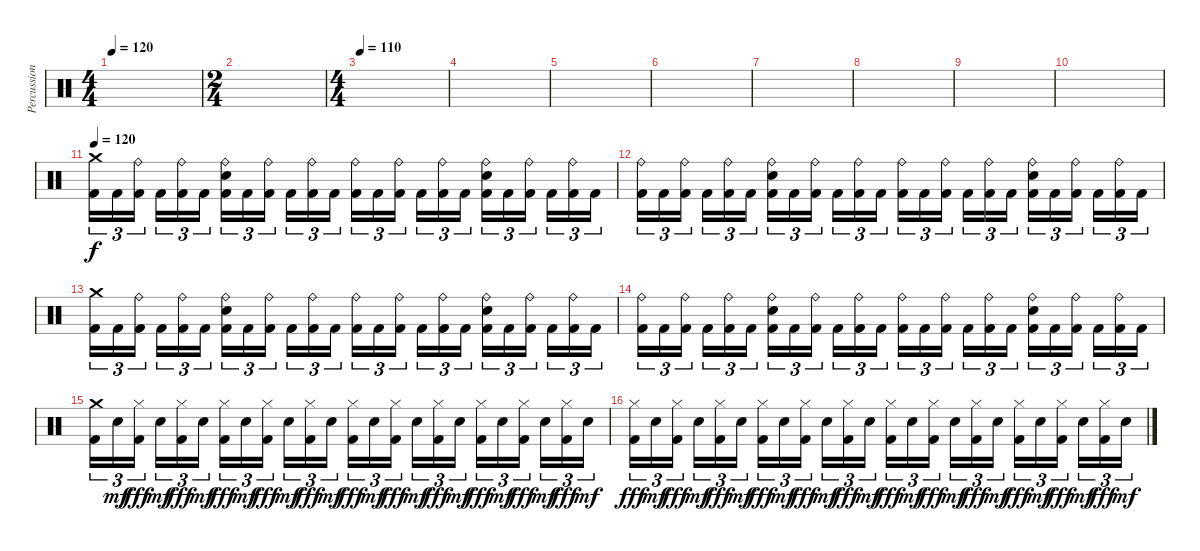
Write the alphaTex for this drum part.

\track ("Percussions" "Percussion") {instrument percussion}
\staff {score}
\articulation defaults
\ts (4 4)
\tempo 120
\clef neutral
\ks c
|
\ts (2 4)
|
\ts (4 4)
\tempo 110
|
|
|
|
|
|
|
|
\tempo 120
("Crash medium (hit)" "Kick (hit) 2").16{tu (3 2)} "Kick (hit) 2".16{tu (3 2)} ("Ride (bell)" "Kick (hit) 2").16{tu (3 2) beam splitsecondary} "Kick (hit) 2".16{tu (3 2)} ("Ride (bell)" "Kick (hit) 2").16{tu (3 2)} "Kick (hit) 2".16{tu (3 2)} ("Ride (bell)" "Snare (hit) 2" "Kick (hit) 2").16{tu (3 2)} "Kick (hit) 2".16{tu (3 2)} ("Ride (bell)" "Kick (hit) 2").16{tu (3 2) beam splitsecondary} "Kick (hit) 2".16{tu (3 2)} ("Ride (bell)" "Kick (hit) 2").16{tu (3 2)} "Kick (hit) 2".16{tu (3 2)} ("Ride (bell)" "Kick (hit) 2").16{tu (3 2)} "Kick (hit) 2".16{tu (3 2)} ("Ride (bell)" "Kick (hit) 2").16{tu (3 2) beam splitsecondary} "Kick (hit) 2".16{tu (3 2)} ("Ride (bell)" "Kick (hit) 2").16{tu (3 2)} "Kick (hit) 2".16{tu (3 2)} ("Ride (bell)" "Snare (hit) 2" "Kick (hit) 2").16{tu (3 2)} "Kick (hit) 2".16{tu (3 2)} ("Ride (bell)" "Kick (hit) 2").16{tu (3 2) beam splitsecondary} "Kick (hit) 2".16{tu (3 2)} ("Ride (bell)" "Kick (hit) 2").16{tu (3 2)} "Kick (hit) 2".16{tu (3 2)} |
("Ride (bell)" "Kick (hit) 2").16{tu (3 2)} "Kick (hit) 2".16{tu (3 2)} ("Ride (bell)" "Kick (hit) 2").16{tu (3 2) beam splitsecondary} "Kick (hit) 2".16{tu (3 2)} ("Ride (bell)" "Kick (hit) 2").16{tu (3 2)} "Kick (hit) 2".16{tu (3 2)} ("Ride (bell)" "Snare (hit) 2" "Kick (hit) 2").16{tu (3 2)} "Kick (hit) 2".16{tu (3 2)} ("Ride (bell)" "Kick (hit) 2").16{tu (3 2) beam splitsecondary} "Kick (hit) 2".16{tu (3 2)} ("Ride (bell)" "Kick (hit) 2").16{tu (3 2)} "Kick (hit) 2".16{tu (3 2)} ("Ride (bell)" "Kick (hit) 2").16{tu (3 2)} "Kick (hit) 2".16{tu (3 2)} ("Ride (bell)" "Kick (hit) 2").16{tu (3 2) beam splitsecondary} "Kick (hit) 2".16{tu (3 2)} ("Ride (bell)" "Kick (hit) 2").16{tu (3 2)} "Kick (hit) 2".16{tu (3 2)} ("Ride (bell)" "Snare (hit) 2" "Kick (hit) 2").16{tu (3 2)} "Kick (hit) 2".16{tu (3 2)} ("Ride (bell)" "Kick (hit) 2").16{tu (3 2) beam splitsecondary} "Kick (hit) 2".16{tu (3 2)} ("Ride (bell)" "Kick (hit) 2").16{tu (3 2)} "Kick (hit) 2".16{tu (3 2)} |
("Crash medium (hit)" "Kick (hit) 2").16{tu (3 2)} "Kick (hit) 2".16{tu (3 2)} ("Ride (bell)" "Kick (hit) 2").16{tu (3 2) beam splitsecondary} "Kick (hit) 2".16{tu (3 2)} ("Ride (bell)" "Kick (hit) 2").16{tu (3 2)} "Kick (hit) 2".16{tu (3 2)} ("Ride (bell)" "Snare (hit) 2" "Kick (hit) 2").16{tu (3 2)} "Kick (hit) 2".16{tu (3 2)} ("Ride (bell)" "Kick (hit) 2").16{tu (3 2) beam splitsecondary} "Kick (hit) 2".16{tu (3 2)} ("Ride (bell)" "Kick (hit) 2").16{tu (3 2)} "Kick (hit) 2".16{tu (3 2)} ("Ride (bell)" "Kick (hit) 2").16{tu (3 2)} "Kick (hit) 2".16{tu (3 2)} ("Ride (bell)" "Kick (hit) 2").16{tu (3 2) beam splitsecondary} "Kick (hit) 2".16{tu (3 2)} ("Ride (bell)" "Kick (hit) 2").16{tu (3 2)} "Kick (hit) 2".16{tu (3 2)} ("Ride (bell)" "Snare (hit) 2" "Kick (hit) 2").16{tu (3 2)} "Kick (hit) 2".16{tu (3 2)} ("Ride (bell)" "Kick (hit) 2").16{tu (3 2) beam splitsecondary} "Kick (hit) 2".16{tu (3 2)} ("Ride (bell)" "Kick (hit) 2").16{tu (3 2)} "Kick (hit) 2".16{tu (3 2)} |
("Ride (bell)" "Kick (hit) 2").16{tu (3 2)} "Kick (hit) 2".16{tu (3 2)} ("Ride (bell)" "Kick (hit) 2").16{tu (3 2) beam splitsecondary} "Kick (hit) 2".16{tu (3 2)} ("Ride (bell)" "Kick (hit) 2").16{tu (3 2)} "Kick (hit) 2".16{tu (3 2)} ("Ride (bell)" "Snare (hit) 2" "Kick (hit) 2").16{tu (3 2)} "Kick (hit) 2".16{tu (3 2)} ("Ride (bell)" "Kick (hit) 2").16{tu (3 2) beam splitsecondary} "Kick (hit) 2".16{tu (3 2)} ("Ride (bell)" "Kick (hit) 2").16{tu (3 2)} "Kick (hit) 2".16{tu (3 2)} ("Ride (bell)" "Kick (hit) 2").16{tu (3 2)} "Kick (hit) 2".16{tu (3 2)} ("Ride (bell)" "Kick (hit) 2").16{tu (3 2) beam splitsecondary} "Kick (hit) 2".16{tu (3 2)} ("Ride (bell)" "Kick (hit) 2").16{tu (3 2)} "Kick (hit) 2".16{tu (3 2)} ("Ride (bell)" "Snare (hit) 2" "Kick (hit) 2").16{tu (3 2)} "Kick (hit) 2".16{tu (3 2)} ("Ride (bell)" "Kick (hit) 2").16{tu (3 2) beam splitsecondary} "Kick (hit) 2".16{tu (3 2)} ("Ride (bell)" "Kick (hit) 2").16{tu (3 2)} "Kick (hit) 2".16{tu (3 2)} |
("Crash medium (hit)" "Kick (hit) 2").16{tu (3 2)} "Electric Snare (hit)".16{tu (3 2) dy mf} ("Hi-Hat (closed)" "Kick (hit) 2").16{tu (3 2) dy fff beam splitsecondary} "Electric Snare (hit)".16{tu (3 2) dy mf} ("Hi-Hat (closed)" "Kick (hit) 2").16{tu (3 2) dy fff} "Electric Snare (hit)".16{tu (3 2) dy mf} ("Hi-Hat (closed)" "Kick (hit) 2").16{tu (3 2) dy fff} "Electric Snare (hit)".16{tu (3 2) dy mf} ("Hi-Hat (closed)" "Kick (hit) 2").16{tu (3 2) dy fff beam splitsecondary} "Electric Snare (hit)".16{tu (3 2) dy mf} ("Hi-Hat (closed)" "Kick (hit) 2").16{tu (3 2) dy fff} "Electric Snare (hit)".16{tu (3 2) dy mf} ("Hi-Hat (closed)" "Kick (hit) 2").16{tu (3 2) dy fff} "Electric Snare (hit)".16{tu (3 2) dy mf} ("Hi-Hat (closed)" "Kick (hit) 2").16{tu (3 2) dy fff beam splitsecondary} "Electric Snare (hit)".16{tu (3 2) dy mf} ("Hi-Hat (closed)" "Kick (hit) 2").16{tu (3 2) dy fff} "Electric Snare (hit)".16{tu (3 2) dy mf} ("Hi-Hat (closed)" "Kick (hit) 2").16{tu (3 2) dy fff} "Electric Snare (hit)".16{tu (3 2) dy mf} ("Hi-Hat (closed)" "Kick (hit) 2").16{tu (3 2) dy fff beam splitsecondary} "Electric Snare (hit)".16{tu (3 2) dy mf} ("Hi-Hat (closed)" "Kick (hit) 2").16{tu (3 2) dy fff} "Electric Snare (hit)".16{tu (3 2) dy mf} |
("Hi-Hat (closed)" "Kick (hit) 2").16{tu (3 2) dy fff} "Electric Snare (hit)".16{tu (3 2) dy mf} ("Hi-Hat (closed)" "Kick (hit) 2").16{tu (3 2) dy fff beam splitsecondary} "Electric Snare (hit)".16{tu (3 2) dy mf} ("Hi-Hat (closed)" "Kick (hit) 2").16{tu (3 2) dy fff} "Electric Snare (hit)".16{tu (3 2) dy mf} ("Hi-Hat (closed)" "Kick (hit) 2").16{tu (3 2) dy fff} "Electric Snare (hit)".16{tu (3 2) dy mf} ("Hi-Hat (closed)" "Kick (hit) 2").16{tu (3 2) dy fff beam splitsecondary} "Electric Snare (hit)".16{tu (3 2) dy mf} ("Hi-Hat (closed)" "Kick (hit) 2").16{tu (3 2) dy fff} "Electric Snare (hit)".16{tu (3 2) dy mf} ("Hi-Hat (closed)" "Kick (hit) 2").16{tu (3 2) dy fff} "Electric Snare (hit)".16{tu (3 2) dy mf} ("Hi-Hat (closed)" "Kick (hit) 2").16{tu (3 2) dy fff beam splitsecondary} "Electric Snare (hit)".16{tu (3 2) dy mf} ("Hi-Hat (closed)" "Kick (hit) 2").16{tu (3 2) dy fff} "Electric Snare (hit)".16{tu (3 2) dy mf} ("Hi-Hat (closed)" "Kick (hit) 2").16{tu (3 2) dy fff} "Electric Snare (hit)".16{tu (3 2) dy mf} ("Hi-Hat (closed)" "Kick (hit) 2").16{tu (3 2) dy fff beam splitsecondary} "Electric Snare (hit)".16{tu (3 2) dy mf} ("Hi-Hat (closed)" "Kick (hit) 2").16{tu (3 2) dy fff} "Electric Snare (hit)".16{tu (3 2) dy mf}
